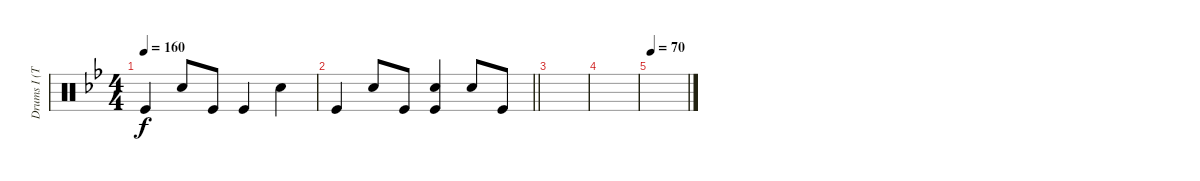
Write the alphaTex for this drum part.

\track ("Drums I (Tainaka Ritsu)" "Drums I (T") {instrument percussion}
\staff {score}
\articulation defaults
\ts (4 4)
\tempo 160
\clef neutral
\ks bb "Kick (hit)".4{dy f} "Snare (hit) 2".8 "Kick (hit)".8 "Kick (hit)".4 "Snare (hit) 2".4
|
\barLineRight lightlight "Kick (hit)".4 "Snare (hit) 2".8 "Kick (hit)".8
("Snare (hit) 2" "Kick (hit)").4 "Snare (hit) 2".8 "Kick (hit)".8 |
|
|
\tempo 70
